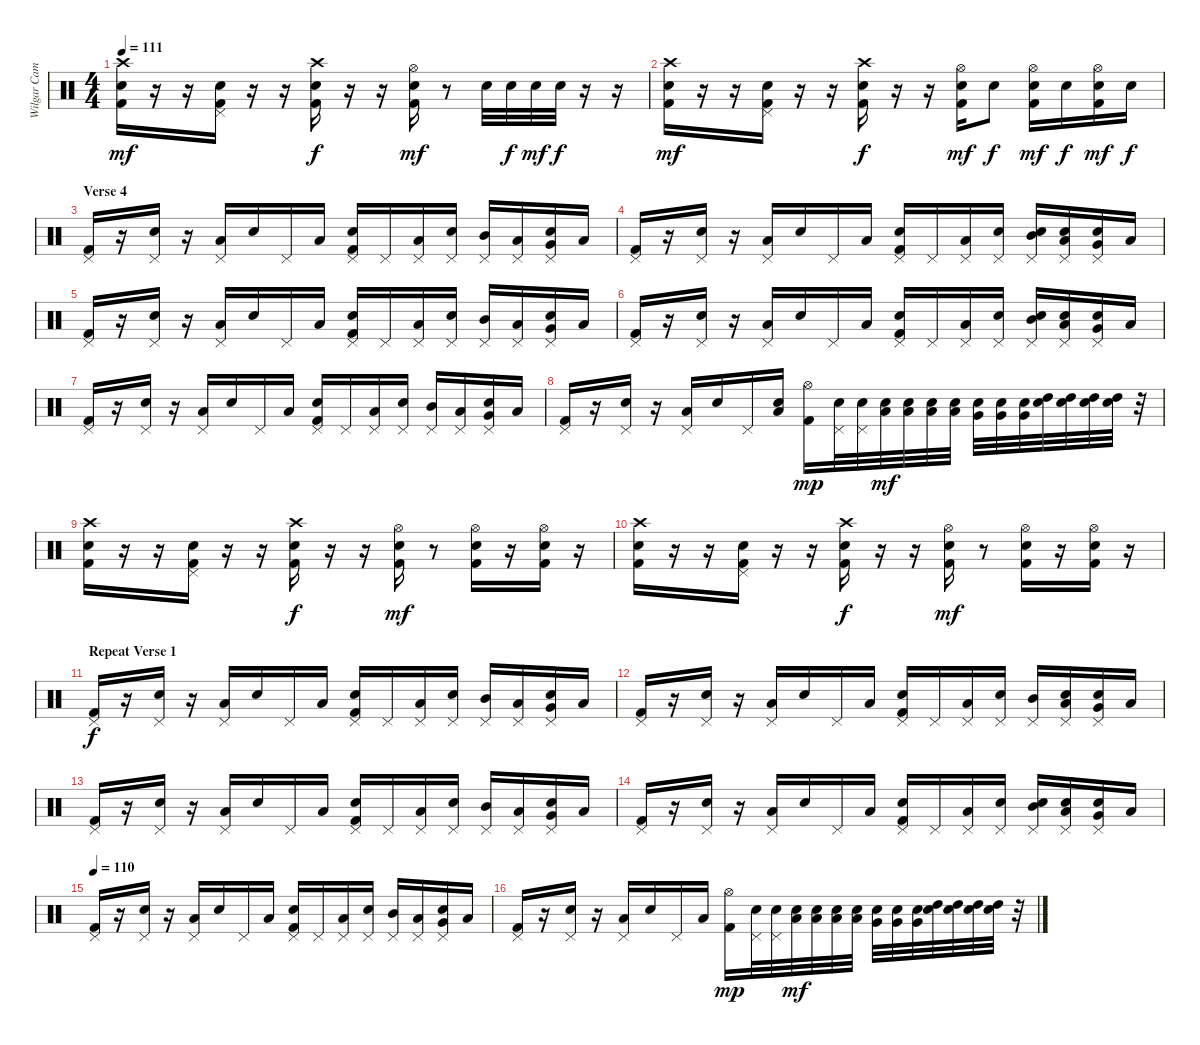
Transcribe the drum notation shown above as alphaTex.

\track ("Wilgar Campbell" "Wilgar Cam") {instrument percussion}
\staff {score}
\articulation defaults
\ts (4 4)
\tempo 111
\clef neutral
\ks c
("Crash high (hit)" "Snare (hit) 2" "Kick (hit) 2").16{dy mf} r.16 r.16 ("Pedal Hi-Hat (hit)" "Snare (hit) 2" "Kick (hit) 2").16 r.16 r.16 ("Crash high (hit)" "Snare (hit) 2" "Kick (hit) 2").16{dy f} r.16 r.16 ("Hi-Hat (open)" "Snare (hit) 2" "Kick (hit) 2").16{dy mf} r.8 "Snare (hit) 2".32 "Snare (hit) 2".32{dy f} "Snare (hit) 2".32{dy mf} "Snare (hit) 2".32{dy f} r.16 r.16 |
("Crash high (hit)" "Snare (hit) 2" "Kick (hit) 2").16{dy mf} r.16 r.16 ("Pedal Hi-Hat (hit)" "Snare (hit) 2" "Kick (hit) 2").16 r.16 r.16 ("Crash high (hit)" "Snare (hit) 2" "Kick (hit) 2").16{dy f} r.16 r.16 ("Hi-Hat (open)" "Snare (hit) 2" "Kick (hit) 2").16{dy mf} "Snare (hit) 2".8{dy f} ("Hi-Hat (open)" "Snare (hit) 2" "Kick (hit) 2").16{dy mf} "Snare (hit) 2".16{dy f} ("Hi-Hat (open)" "Snare (hit) 2" "Kick (hit) 2").16{dy mf} "Snare (hit) 2".16{dy f} |
\section ("" "Verse 4")
("Pedal Hi-Hat (hit)" "Kick (hit) 2").16 r.16 ("Snare (hit) 2" "Pedal Hi-Hat (hit)").16 r.16 ("Low Tom (hit)" "Pedal Hi-Hat (hit)").16 "Snare (hit) 2".16 "Pedal Hi-Hat (hit)".16 "Low Tom (hit)".16 ("Snare (hit) 2" "Pedal Hi-Hat (hit)" "Kick (hit) 2").16 "Pedal Hi-Hat (hit)".16 ("Low Tom (hit)" "Pedal Hi-Hat (hit)").16 ("Snare (hit) 2" "Pedal Hi-Hat (hit)").16 ("Mid Tom (hit)" "Pedal Hi-Hat (hit)").16 ("Low Tom (hit)" "Pedal Hi-Hat (hit)").16 ("Very Low Tom (hit)" "Snare (hit) 2" "Pedal Hi-Hat (hit)").16 "Low Tom (hit)".16 |
("Pedal Hi-Hat (hit)" "Kick (hit) 2").16 r.16 ("Snare (hit) 2" "Pedal Hi-Hat (hit)").16 r.16 ("Low Tom (hit)" "Pedal Hi-Hat (hit)").16 "Snare (hit) 2".16 "Pedal Hi-Hat (hit)".16 "Low Tom (hit)".16 ("Snare (hit) 2" "Pedal Hi-Hat (hit)" "Kick (hit) 2").16 "Pedal Hi-Hat (hit)".16 ("Low Tom (hit)" "Pedal Hi-Hat (hit)").16 ("Snare (hit) 2" "Pedal Hi-Hat (hit)").16 ("Mid Tom (hit)" "Electric Snare (hit)" "Pedal Hi-Hat (hit)").16 ("Low Tom (hit)" "Electric Snare (hit)" "Pedal Hi-Hat (hit)").16 ("Very Low Tom (hit)" "Snare (hit) 2" "Pedal Hi-Hat (hit)").16 "Low Tom (hit)".16 |
("Pedal Hi-Hat (hit)" "Kick (hit) 2").16 r.16 ("Snare (hit) 2" "Pedal Hi-Hat (hit)").16 r.16 ("Low Tom (hit)" "Pedal Hi-Hat (hit)").16 "Snare (hit) 2".16 "Pedal Hi-Hat (hit)".16 "Low Tom (hit)".16 ("Snare (hit) 2" "Pedal Hi-Hat (hit)" "Kick (hit) 2").16 "Pedal Hi-Hat (hit)".16 ("Low Tom (hit)" "Pedal Hi-Hat (hit)").16 ("Snare (hit) 2" "Pedal Hi-Hat (hit)").16 ("Mid Tom (hit)" "Pedal Hi-Hat (hit)").16 ("Low Tom (hit)" "Pedal Hi-Hat (hit)").16 ("Very Low Tom (hit)" "Snare (hit) 2" "Pedal Hi-Hat (hit)").16 "Low Tom (hit)".16 |
("Pedal Hi-Hat (hit)" "Kick (hit) 2").16 r.16 ("Snare (hit) 2" "Pedal Hi-Hat (hit)").16 r.16 ("Low Tom (hit)" "Pedal Hi-Hat (hit)").16 "Snare (hit) 2".16 "Pedal Hi-Hat (hit)".16 "Low Tom (hit)".16 ("Snare (hit) 2" "Pedal Hi-Hat (hit)" "Kick (hit) 2").16 "Pedal Hi-Hat (hit)".16 ("Low Tom (hit)" "Pedal Hi-Hat (hit)").16 ("Snare (hit) 2" "Pedal Hi-Hat (hit)").16 ("Mid Tom (hit)" "Electric Snare (hit)" "Pedal Hi-Hat (hit)").16 ("Low Tom (hit)" "Electric Snare (hit)" "Pedal Hi-Hat (hit)").16 ("Very Low Tom (hit)" "Snare (hit) 2" "Pedal Hi-Hat (hit)").16 "Low Tom (hit)".16 |
("Pedal Hi-Hat (hit)" "Kick (hit) 2").16 r.16 ("Snare (hit) 2" "Pedal Hi-Hat (hit)").16 r.16 ("Low Tom (hit)" "Pedal Hi-Hat (hit)").16 "Snare (hit) 2".16 "Pedal Hi-Hat (hit)".16 "Low Tom (hit)".16 ("Snare (hit) 2" "Pedal Hi-Hat (hit)" "Kick (hit) 2").16 "Pedal Hi-Hat (hit)".16 ("Low Tom (hit)" "Pedal Hi-Hat (hit)").16 ("Snare (hit) 2" "Pedal Hi-Hat (hit)").16 ("Mid Tom (hit)" "Pedal Hi-Hat (hit)").16 ("Low Tom (hit)" "Pedal Hi-Hat (hit)").16 ("Very Low Tom (hit)" "Snare (hit) 2" "Pedal Hi-Hat (hit)").16 "Low Tom (hit)".16 |
("Pedal Hi-Hat (hit)" "Kick (hit) 2").16 r.16 ("Snare (hit) 2" "Pedal Hi-Hat (hit)").16 r.16 ("Low Tom (hit)" "Pedal Hi-Hat (hit)").16 "Snare (hit) 2".16 "Pedal Hi-Hat (hit)".16 ("Low Tom (hit)" "Snare (hit) 2").16 ("Hi-Hat (open)" "Kick (hit) 2").16{dy mp} ("Electric Snare (hit)" "Pedal Hi-Hat (hit)").32 ("Electric Snare (hit)" "Pedal Hi-Hat (hit)").32 ("Snare (hit) 2" "Low Tom (hit)").32{dy mf} ("Snare (hit) 2" "Low Tom (hit)").32 ("Snare (hit) 2" "Low Tom (hit)").32 ("Snare (hit) 2" "Low Tom (hit)").32 ("Electric Snare (hit)" "Very Low Tom (hit)").32 ("Electric Snare (hit)" "Very Low Tom (hit)").32 ("Electric Snare (hit)" "Very Low Tom (hit)").32 ("Snare (hit) 2" "High Tom (hit)").32 ("Snare (hit) 2" "High Tom (hit)").32 ("Snare (hit) 2" "High Tom (hit)").32 ("Snare (hit) 2" "High Tom (hit)").32 r.32 |
("Crash high (hit)" "Snare (hit) 2" "Kick (hit) 2").16 r.16 r.16 ("Pedal Hi-Hat (hit)" "Snare (hit) 2" "Kick (hit) 2").16 r.16 r.16 ("Crash high (hit)" "Snare (hit) 2" "Kick (hit) 2").16{dy f} r.16 r.16 ("Hi-Hat (open)" "Snare (hit) 2" "Kick (hit) 2").16{dy mf} r.8 ("Hi-Hat (open)" "Snare (hit) 2" "Kick (hit) 2").16 r.16 ("Hi-Hat (open)" "Snare (hit) 2" "Kick (hit) 2").16 r.16 |
("Crash high (hit)" "Snare (hit) 2" "Kick (hit) 2").16 r.16 r.16 ("Pedal Hi-Hat (hit)" "Snare (hit) 2" "Kick (hit) 2").16 r.16 r.16 ("Crash high (hit)" "Snare (hit) 2" "Kick (hit) 2").16{dy f} r.16 r.16 ("Hi-Hat (open)" "Snare (hit) 2" "Kick (hit) 2").16{dy mf} r.8 ("Hi-Hat (open)" "Snare (hit) 2" "Kick (hit) 2").16 r.16 ("Hi-Hat (open)" "Snare (hit) 2" "Kick (hit) 2").16 r.16 |
\section ("" "Repeat Verse 1")
("Pedal Hi-Hat (hit)" "Kick (hit) 2").16{dy f} r.16 ("Snare (hit) 2" "Pedal Hi-Hat (hit)").16 r.16 ("Low Tom (hit)" "Pedal Hi-Hat (hit)").16 "Snare (hit) 2".16 "Pedal Hi-Hat (hit)".16 "Low Tom (hit)".16 ("Snare (hit) 2" "Pedal Hi-Hat (hit)" "Kick (hit) 2").16 "Pedal Hi-Hat (hit)".16 ("Low Tom (hit)" "Pedal Hi-Hat (hit)").16 ("Snare (hit) 2" "Pedal Hi-Hat (hit)").16 ("Mid Tom (hit)" "Pedal Hi-Hat (hit)").16 ("Low Tom (hit)" "Pedal Hi-Hat (hit)").16 ("Very Low Tom (hit)" "Snare (hit) 2" "Pedal Hi-Hat (hit)").16 "Low Tom (hit)".16 |
("Pedal Hi-Hat (hit)" "Kick (hit) 2").16 r.16 ("Snare (hit) 2" "Pedal Hi-Hat (hit)").16 r.16 ("Low Tom (hit)" "Pedal Hi-Hat (hit)").16 "Snare (hit) 2".16 "Pedal Hi-Hat (hit)".16 "Low Tom (hit)".16 ("Snare (hit) 2" "Pedal Hi-Hat (hit)" "Kick (hit) 2").16 "Pedal Hi-Hat (hit)".16 ("Low Tom (hit)" "Pedal Hi-Hat (hit)").16 ("Snare (hit) 2" "Pedal Hi-Hat (hit)").16 ("Mid Tom (hit)" "Pedal Hi-Hat (hit)").16 ("Low Tom (hit)" "Snare (hit) 2" "Pedal Hi-Hat (hit)").16 ("Very Low Tom (hit)" "Snare (hit) 2" "Pedal Hi-Hat (hit)").16 "Low Tom (hit)".16 |
("Pedal Hi-Hat (hit)" "Kick (hit) 2").16 r.16 ("Snare (hit) 2" "Pedal Hi-Hat (hit)").16 r.16 ("Low Tom (hit)" "Pedal Hi-Hat (hit)").16 "Snare (hit) 2".16 "Pedal Hi-Hat (hit)".16 "Low Tom (hit)".16 ("Snare (hit) 2" "Pedal Hi-Hat (hit)" "Kick (hit) 2").16 "Pedal Hi-Hat (hit)".16 ("Low Tom (hit)" "Pedal Hi-Hat (hit)").16 ("Snare (hit) 2" "Pedal Hi-Hat (hit)").16 ("Mid Tom (hit)" "Pedal Hi-Hat (hit)").16 ("Low Tom (hit)" "Pedal Hi-Hat (hit)").16 ("Very Low Tom (hit)" "Snare (hit) 2" "Pedal Hi-Hat (hit)").16 "Low Tom (hit)".16 |
("Pedal Hi-Hat (hit)" "Kick (hit) 2").16 r.16 ("Snare (hit) 2" "Pedal Hi-Hat (hit)").16 r.16 ("Low Tom (hit)" "Pedal Hi-Hat (hit)").16 "Snare (hit) 2".16 "Pedal Hi-Hat (hit)".16 "Low Tom (hit)".16 ("Snare (hit) 2" "Pedal Hi-Hat (hit)" "Kick (hit) 2").16 "Pedal Hi-Hat (hit)".16 ("Low Tom (hit)" "Pedal Hi-Hat (hit)").16 ("Snare (hit) 2" "Pedal Hi-Hat (hit)").16 ("Mid Tom (hit)" "Electric Snare (hit)" "Pedal Hi-Hat (hit)").16 ("Low Tom (hit)" "Electric Snare (hit)" "Pedal Hi-Hat (hit)").16 ("Very Low Tom (hit)" "Snare (hit) 2" "Pedal Hi-Hat (hit)").16 "Low Tom (hit)".16 |
\tempo 110
("Pedal Hi-Hat (hit)" "Kick (hit) 2").16 r.16 ("Snare (hit) 2" "Pedal Hi-Hat (hit)").16 r.16 ("Low Tom (hit)" "Pedal Hi-Hat (hit)").16 "Snare (hit) 2".16 "Pedal Hi-Hat (hit)".16 "Low Tom (hit)".16 ("Snare (hit) 2" "Pedal Hi-Hat (hit)" "Kick (hit) 2").16 "Pedal Hi-Hat (hit)".16 ("Low Tom (hit)" "Pedal Hi-Hat (hit)").16 ("Snare (hit) 2" "Pedal Hi-Hat (hit)").16 ("Mid Tom (hit)" "Pedal Hi-Hat (hit)").16 ("Low Tom (hit)" "Pedal Hi-Hat (hit)").16 ("Very Low Tom (hit)" "Snare (hit) 2" "Pedal Hi-Hat (hit)").16 "Low Tom (hit)".16 |
("Pedal Hi-Hat (hit)" "Kick (hit) 2").16 r.16 ("Snare (hit) 2" "Pedal Hi-Hat (hit)").16 r.16 ("Low Tom (hit)" "Pedal Hi-Hat (hit)").16 "Snare (hit) 2".16 "Pedal Hi-Hat (hit)".16 "Low Tom (hit)".16 ("Hi-Hat (open)" "Kick (hit) 2").16{dy mp} ("Electric Snare (hit)" "Pedal Hi-Hat (hit)").32 ("Electric Snare (hit)" "Pedal Hi-Hat (hit)").32 ("Snare (hit) 2" "Low Tom (hit)").32{dy mf} ("Snare (hit) 2" "Low Tom (hit)").32 ("Snare (hit) 2" "Low Tom (hit)").32 ("Snare (hit) 2" "Low Tom (hit)").32 ("Electric Snare (hit)" "Very Low Tom (hit)").32 ("Electric Snare (hit)" "Very Low Tom (hit)").32 ("Electric Snare (hit)" "Very Low Tom (hit)").32 ("Snare (hit) 2" "High Tom (hit)").32 ("Snare (hit) 2" "High Tom (hit)").32 ("Snare (hit) 2" "High Tom (hit)").32 ("Snare (hit) 2" "High Tom (hit)").32 r.32
